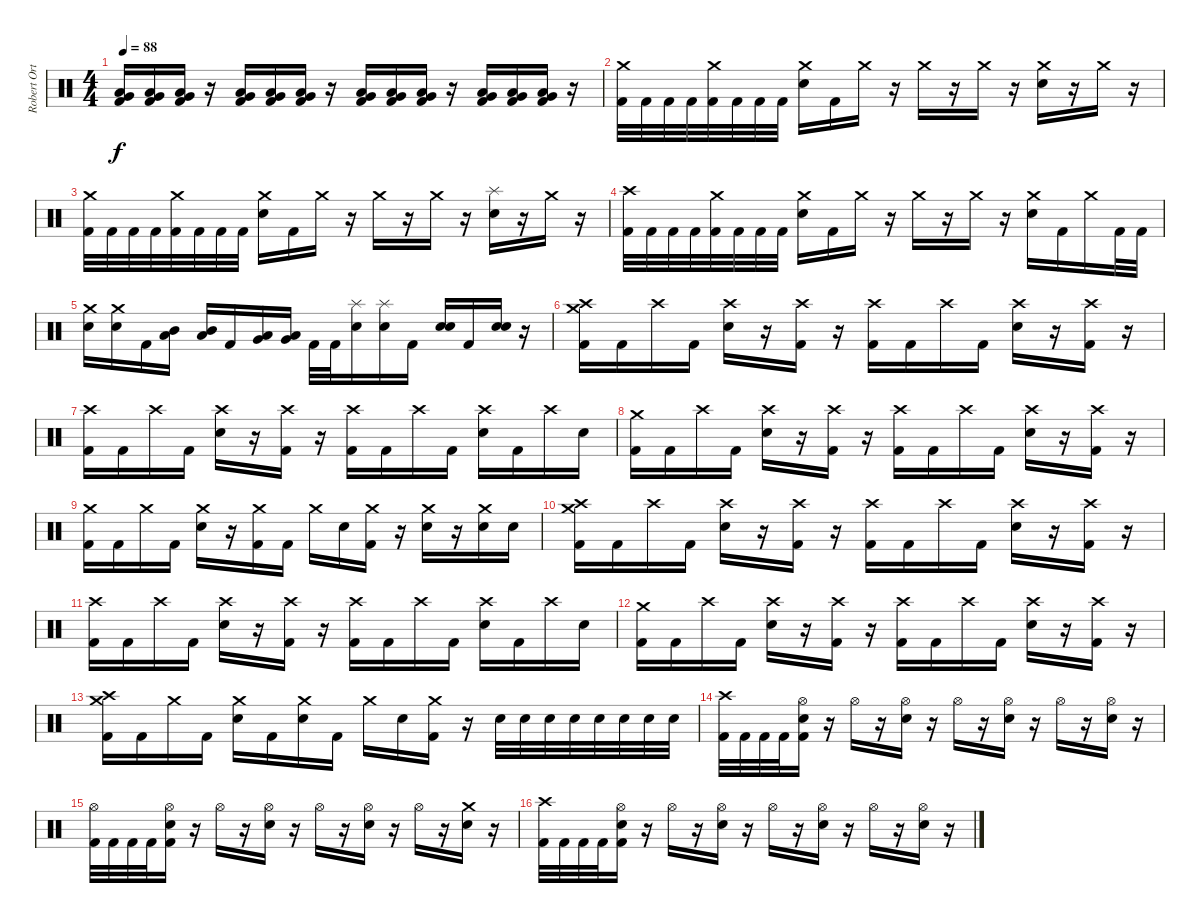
\track ("Robert Ortiz" "Robert Ort") {instrument percussion}
\staff {score}
\articulation defaults
\ts (4 4)
\tempo 88
\clef neutral
\ks c
("Kick (hit) 2" "Very Low Tom (hit)" "Low Tom (hit)").16{dy f} ("Kick (hit) 2" "Very Low Tom (hit)" "Low Tom (hit)").16 ("Kick (hit) 2" "Very Low Tom (hit)" "Low Tom (hit)").16 r.16 ("Kick (hit) 2" "Very Low Tom (hit)" "Low Tom (hit)").16 ("Kick (hit) 2" "Very Low Tom (hit)" "Low Tom (hit)").16 ("Kick (hit) 2" "Very Low Tom (hit)" "Low Tom (hit)").16 r.16 ("Kick (hit) 2" "Very Low Tom (hit)" "Low Tom (hit)").16 ("Kick (hit) 2" "Very Low Tom (hit)" "Low Tom (hit)").16 ("Kick (hit) 2" "Very Low Tom (hit)" "Low Tom (hit)").16 r.16 ("Kick (hit) 2" "Very Low Tom (hit)" "Low Tom (hit)").16 ("Kick (hit) 2" "Very Low Tom (hit)" "Low Tom (hit)").16 ("Kick (hit) 2" "Very Low Tom (hit)" "Low Tom (hit)").16 r.16 |
("Kick (hit) 2" "Crash medium (hit)").32 "Kick (hit) 2".32 "Kick (hit) 2".32 "Kick (hit) 2".32 ("Kick (hit) 2" "Crash medium (hit)").32 "Kick (hit) 2".32 "Kick (hit) 2".32 "Kick (hit) 2".32 ("Electric Snare (hit)" "Crash medium (hit)").16 "Kick (hit) 2".16 "Crash medium (hit)".16 r.16 "Crash medium (hit)".16 r.16 "Crash medium (hit)".16 r.16 ("Electric Snare (hit)" "Crash medium (hit)").16 r.16 "Crash medium (hit)".16 r.16 |
("Kick (hit) 2" "Crash medium (hit)").32 "Kick (hit) 2".32 "Kick (hit) 2".32 "Kick (hit) 2".32 ("Kick (hit) 2" "Crash medium (hit)").32 "Kick (hit) 2".32 "Kick (hit) 2".32 "Kick (hit) 2".32 ("Electric Snare (hit)" "Crash medium (hit)").16 "Kick (hit) 2".16 "Crash medium (hit)".16 r.16 "Crash medium (hit)".16 r.16 "Crash medium (hit)".16 r.16 ("Electric Snare (hit)" "Splash (hit)").16 r.16 "Crash medium (hit)".16 r.16 |
("Kick (hit) 2" "Crash high (hit)").32 "Kick (hit) 2".32 "Kick (hit) 2".32 "Kick (hit) 2".32 ("Kick (hit) 2" "Crash medium (hit)").32 "Kick (hit) 2".32 "Kick (hit) 2".32 "Kick (hit) 2".32 ("Electric Snare (hit)" "Crash medium (hit)").16 "Kick (hit) 2".16 "Crash medium (hit)".16 r.16 "Crash medium (hit)".16 r.16 "Crash medium (hit)".16 r.16 ("Electric Snare (hit)" "Crash medium (hit)").16 "Kick (hit) 2".16 "Crash medium (hit)".16 "Kick (hit) 2".32 "Kick (hit) 2".32 |
("Electric Snare (hit)" "Crash medium (hit)").16 ("Electric Snare (hit)" "Crash medium (hit)").16 "Kick (hit) 2".16 ("Mid Tom (hit)" "Low Tom (hit)").16 ("Mid Tom (hit)" "Low Tom (hit)").16 "Kick (hit) 2".16 ("Low Tom (hit)" "Very Low Tom (hit)").16 ("Low Tom (hit)" "Very Low Tom (hit)").16 "Kick (hit) 2".32 "Kick (hit) 2".32 ("Electric Snare (hit)" "Splash (hit)").16 ("Electric Snare (hit)" "Splash (hit)").16 "Kick (hit) 2".16 ("Electric Snare (hit)" "Electric Snare (hit)").16{bd 240} "Kick (hit) 2".16 ("Electric Snare (hit)" "Electric Snare (hit)").16{bd 240} r.16 |
("Kick (hit) 2" "Crash medium (hit)" "Crash high (hit)").16 "Kick (hit) 2".16 "Crash high (hit)".16 "Kick (hit) 2".16 ("Electric Snare (hit)" "Crash high (hit)").16 r.16 ("Kick (hit) 2" "Crash high (hit)").16 r.16 ("Kick (hit) 2" "Crash high (hit)").16 "Kick (hit) 2".16 "Crash high (hit)".16 "Kick (hit) 2".16 ("Electric Snare (hit)" "Crash high (hit)").16 r.16 ("Kick (hit) 2" "Crash high (hit)").16 r.16 |
("Kick (hit) 2" "Crash high (hit)").16 "Kick (hit) 2".16 "Crash high (hit)".16 "Kick (hit) 2".16 ("Electric Snare (hit)" "Crash high (hit)").16 r.16 ("Kick (hit) 2" "Crash high (hit)").16 r.16 ("Kick (hit) 2" "Crash high (hit)").16 "Kick (hit) 2".16 "Crash high (hit)".16 "Kick (hit) 2".16 ("Electric Snare (hit)" "Crash high (hit)").16 "Kick (hit) 2".16 "Crash high (hit)".16 "Electric Snare (hit)".16 |
("Kick (hit) 2" "Crash medium (hit)").16 "Kick (hit) 2".16 "Crash high (hit)".16 "Kick (hit) 2".16 ("Electric Snare (hit)" "Crash high (hit)").16 r.16 ("Kick (hit) 2" "Crash high (hit)").16 r.16 ("Kick (hit) 2" "Crash high (hit)").16 "Kick (hit) 2".16 "Crash high (hit)".16 "Kick (hit) 2".16 ("Electric Snare (hit)" "Crash high (hit)").16 r.16 ("Kick (hit) 2" "Crash high (hit)").16 r.16 |
("Kick (hit) 2" "Crash medium (hit)").16 "Kick (hit) 2".16 "Crash medium (hit)".16 "Kick (hit) 2".16 ("Electric Snare (hit)" "Crash medium (hit)").16 r.16 ("Kick (hit) 2" "Crash medium (hit)").16 "Kick (hit) 2".16 "Crash medium (hit)".16 "Electric Snare (hit)".16 ("Kick (hit) 2" "Crash medium (hit)").16 r.16 ("Electric Snare (hit)" "Crash medium (hit)").16 r.16 ("Electric Snare (hit)" "Crash medium (hit)").16 "Electric Snare (hit)".16 |
("Kick (hit) 2" "Crash medium (hit)" "Crash high (hit)").16 "Kick (hit) 2".16 "Crash high (hit)".16 "Kick (hit) 2".16 ("Electric Snare (hit)" "Crash high (hit)").16 r.16 ("Kick (hit) 2" "Crash high (hit)").16 r.16 ("Kick (hit) 2" "Crash high (hit)").16 "Kick (hit) 2".16 "Crash high (hit)".16 "Kick (hit) 2".16 ("Electric Snare (hit)" "Crash high (hit)").16 r.16 ("Kick (hit) 2" "Crash high (hit)").16 r.16 |
("Kick (hit) 2" "Crash high (hit)").16 "Kick (hit) 2".16 "Crash high (hit)".16 "Kick (hit) 2".16 ("Electric Snare (hit)" "Crash high (hit)").16 r.16 ("Kick (hit) 2" "Crash high (hit)").16 r.16 ("Kick (hit) 2" "Crash high (hit)").16 "Kick (hit) 2".16 "Crash high (hit)".16 "Kick (hit) 2".16 ("Electric Snare (hit)" "Crash high (hit)").16 "Kick (hit) 2".16 "Crash high (hit)".16 "Electric Snare (hit)".16 |
("Kick (hit) 2" "Crash medium (hit)").16 "Kick (hit) 2".16 "Crash high (hit)".16 "Kick (hit) 2".16 ("Electric Snare (hit)" "Crash high (hit)").16 r.16 ("Kick (hit) 2" "Crash high (hit)").16 r.16 ("Kick (hit) 2" "Crash high (hit)").16 "Kick (hit) 2".16 "Crash high (hit)".16 "Kick (hit) 2".16 ("Electric Snare (hit)" "Crash high (hit)").16 r.16 ("Kick (hit) 2" "Crash high (hit)").16 r.16 |
("Kick (hit) 2" "Crash high (hit)" "Crash medium (hit)").16 "Kick (hit) 2".16 "Crash medium (hit)".16 "Kick (hit) 2".16 ("Electric Snare (hit)" "Crash medium (hit)").16 "Kick (hit) 2".16 ("Electric Snare (hit)" "Crash medium (hit)").16 "Kick (hit) 2".16 "Crash medium (hit)".16 "Electric Snare (hit)".16 ("Kick (hit) 2" "Crash medium (hit)").16 r.16 "Electric Snare (hit)".32 "Electric Snare (hit)".32 "Electric Snare (hit)".32 "Electric Snare (hit)".32 "Electric Snare (hit)".32 "Electric Snare (hit)".32 "Electric Snare (hit)".32 "Electric Snare (hit)".32 |
("Kick (hit) 2" "Crash high (hit)").32 "Kick (hit) 2".32 "Kick (hit) 2".32 "Kick (hit) 2".32 ("Kick (hit) 2" "Electric Snare (hit)" "Hi-Hat (open)").16 r.16 "Hi-Hat (open)".16 r.16 ("Electric Snare (hit)" "Hi-Hat (open)").16 r.16 "Hi-Hat (open)".16 r.16 ("Electric Snare (hit)" "Hi-Hat (open)").16 r.16 "Hi-Hat (open)".16 r.16 ("Electric Snare (hit)" "Hi-Hat (open)").16 r.16 |
("Kick (hit) 2" "Hi-Hat (open)").32 "Kick (hit) 2".32 "Kick (hit) 2".32 "Kick (hit) 2".32 ("Kick (hit) 2" "Electric Snare (hit)" "Hi-Hat (open)").16 r.16 "Hi-Hat (open)".16 r.16 ("Electric Snare (hit)" "Hi-Hat (open)").16 r.16 "Hi-Hat (open)".16 r.16 ("Electric Snare (hit)" "Hi-Hat (open)").16 r.16 "Hi-Hat (open)".16 r.16 ("Electric Snare (hit)" "Crash medium (hit)").16 r.16 |
("Kick (hit) 2" "Crash high (hit)").32 "Kick (hit) 2".32 "Kick (hit) 2".32 "Kick (hit) 2".32 ("Kick (hit) 2" "Electric Snare (hit)" "Hi-Hat (open)").16 r.16 "Hi-Hat (open)".16 r.16 ("Electric Snare (hit)" "Hi-Hat (open)").16 r.16 "Hi-Hat (open)".16 r.16 ("Electric Snare (hit)" "Hi-Hat (open)").16 r.16 "Hi-Hat (open)".16 r.16 ("Electric Snare (hit)" "Hi-Hat (open)").16 r.16
